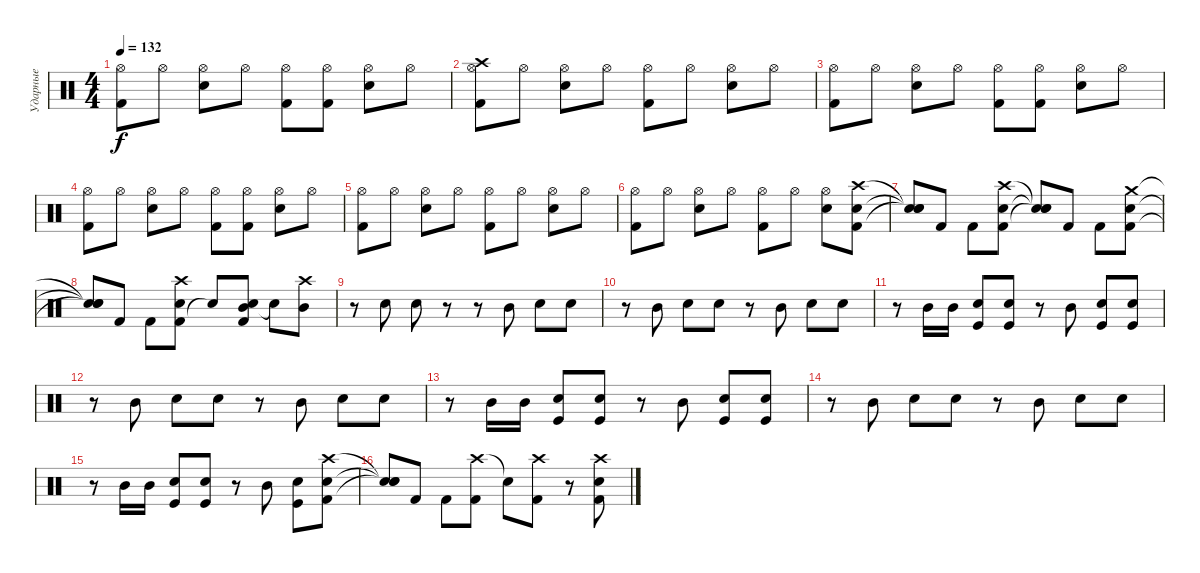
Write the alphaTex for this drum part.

\track ("Ударные" "Ударные") {instrument percussion}
\staff {score}
\articulation defaults
\ts (4 4)
\tempo 132
\clef neutral
\ks c
("Hi-Hat (open)" "Kick (hit) 2").8{dy f} "Hi-Hat (open)".8 ("Hi-Hat (open)" "Electric Snare (hit)").8 "Hi-Hat (open)".8 ("Hi-Hat (open)" "Kick (hit) 2").8 ("Hi-Hat (open)" "Kick (hit) 2").8 ("Hi-Hat (open)" "Electric Snare (hit)").8 "Hi-Hat (open)".8 |
("Crash high (hit)" "Hi-Hat (open)" "Kick (hit) 2").8 "Hi-Hat (open)".8 ("Hi-Hat (open)" "Electric Snare (hit)").8 "Hi-Hat (open)".8 ("Hi-Hat (open)" "Kick (hit) 2").8 "Hi-Hat (open)".8 ("Hi-Hat (open)" "Electric Snare (hit)").8 "Hi-Hat (open)".8 |
("Hi-Hat (open)" "Kick (hit) 2").8 "Hi-Hat (open)".8 ("Hi-Hat (open)" "Electric Snare (hit)").8 "Hi-Hat (open)".8 ("Hi-Hat (open)" "Kick (hit) 2").8 ("Hi-Hat (open)" "Kick (hit) 2").8 ("Hi-Hat (open)" "Electric Snare (hit)").8 "Hi-Hat (open)".8 |
("Hi-Hat (open)" "Kick (hit) 2").8 "Hi-Hat (open)".8 ("Hi-Hat (open)" "Electric Snare (hit)").8 "Hi-Hat (open)".8 ("Hi-Hat (open)" "Kick (hit) 2").8 ("Hi-Hat (open)" "Kick (hit) 2").8 ("Hi-Hat (open)" "Electric Snare (hit)").8 "Hi-Hat (open)".8 |
("Hi-Hat (open)" "Kick (hit) 2").8 "Hi-Hat (open)".8 ("Hi-Hat (open)" "Electric Snare (hit)").8 "Hi-Hat (open)".8 ("Hi-Hat (open)" "Kick (hit) 2").8 "Hi-Hat (open)".8 ("Hi-Hat (open)" "Electric Snare (hit)").8 "Hi-Hat (open)".8 |
("Hi-Hat (open)" "Kick (hit) 2").8 "Hi-Hat (open)".8 ("Hi-Hat (open)" "Electric Snare (hit)").8 "Hi-Hat (open)".8 ("Hi-Hat (open)" "Kick (hit) 2").8 "Hi-Hat (open)".8 ("Hi-Hat (open)" "Electric Snare (hit)").8 ("Kick (hit) 2" "Electric Snare (hit)" "Crash high (hit)").8 |
("Snare (hit)"{t} "Snare (hit)"{t} "Snare (hit)"{t}).8 "Kick (hit) 2".8 "Kick (hit) 2".8 ("Kick (hit) 2" "Crash high (hit)" "Electric Snare (hit)").8 ("Snare (hit)"{t} "Snare (hit)"{t} "Snare (hit)"{t}).8 "Kick (hit) 2".8 "Kick (hit) 2".8 ("Snare (hit) 2" "Kick (hit) 2" "Crash medium (hit)").8 |
("Snare (hit)"{t} "Snare (hit)"{t} "Snare (hit)"{t}).8 "Kick (hit) 2".8 "Kick (hit) 2".8 ("Kick (hit) 2" "Crash high (hit)" "Electric Snare (hit)").8 "Snare (hit)"{t}.8 ("Mid Tom (hit)" "Kick (hit) 2" "Snare (hit) 2").8 "Snare (hit)"{t}.8 ("Crash high (hit)" "Mid Tom (hit)").8 |
r.8 "Snare (hit) 2".8 "Snare (hit) 2".8 r.8 r.8 "Mid Tom (hit)".8 "Snare (hit) 2".8 "Snare (hit) 2".8 |
r.8 "Mid Tom (hit)".8 "Snare (hit) 2".8 "Snare (hit) 2".8 r.8 "Mid Tom (hit)".8 "Snare (hit) 2".8 "Snare (hit) 2".8 |
r.8 "Mid Tom (hit)".16 "Mid Tom (hit)".16 ("Kick (hit)" "Snare (hit) 2").8 ("Kick (hit)" "Snare (hit) 2").8 r.8 "Mid Tom (hit)".8 ("Kick (hit)" "Snare (hit) 2").8 ("Kick (hit)" "Snare (hit) 2").8 |
r.8 "Mid Tom (hit)".8 "Snare (hit) 2".8 "Snare (hit) 2".8 r.8 "Mid Tom (hit)".8 "Snare (hit) 2".8 "Snare (hit) 2".8 |
r.8 "Mid Tom (hit)".16 "Mid Tom (hit)".16 ("Kick (hit)" "Snare (hit) 2").8 ("Kick (hit)" "Snare (hit) 2").8 r.8 "Mid Tom (hit)".8 ("Kick (hit)" "Snare (hit) 2").8 ("Kick (hit)" "Snare (hit) 2").8 |
r.8 "Mid Tom (hit)".8 "Snare (hit) 2".8 "Snare (hit) 2".8 r.8 "Mid Tom (hit)".8 "Snare (hit) 2".8 "Snare (hit) 2".8 |
r.8 "Mid Tom (hit)".16 "Mid Tom (hit)".16 ("Kick (hit)" "Snare (hit) 2").8 ("Kick (hit)" "Snare (hit) 2").8 r.8 "Mid Tom (hit)".8 ("Kick (hit)" "Snare (hit) 2").8 ("Crash high (hit)" "Kick (hit) 2" "Electric Snare (hit)").8 |
("Snare (hit)"{t} "Snare (hit)"{t} "Snare (hit)"{t}).8 "Kick (hit) 2".8 "Kick (hit) 2".8 ("Crash high (hit)" "Kick (hit) 2").8 "Snare (hit)"{t}.8 ("Crash high (hit)" "Kick (hit) 2").8 r.8 ("Crash high (hit)" "Electric Snare (hit)" "Kick (hit) 2").8
